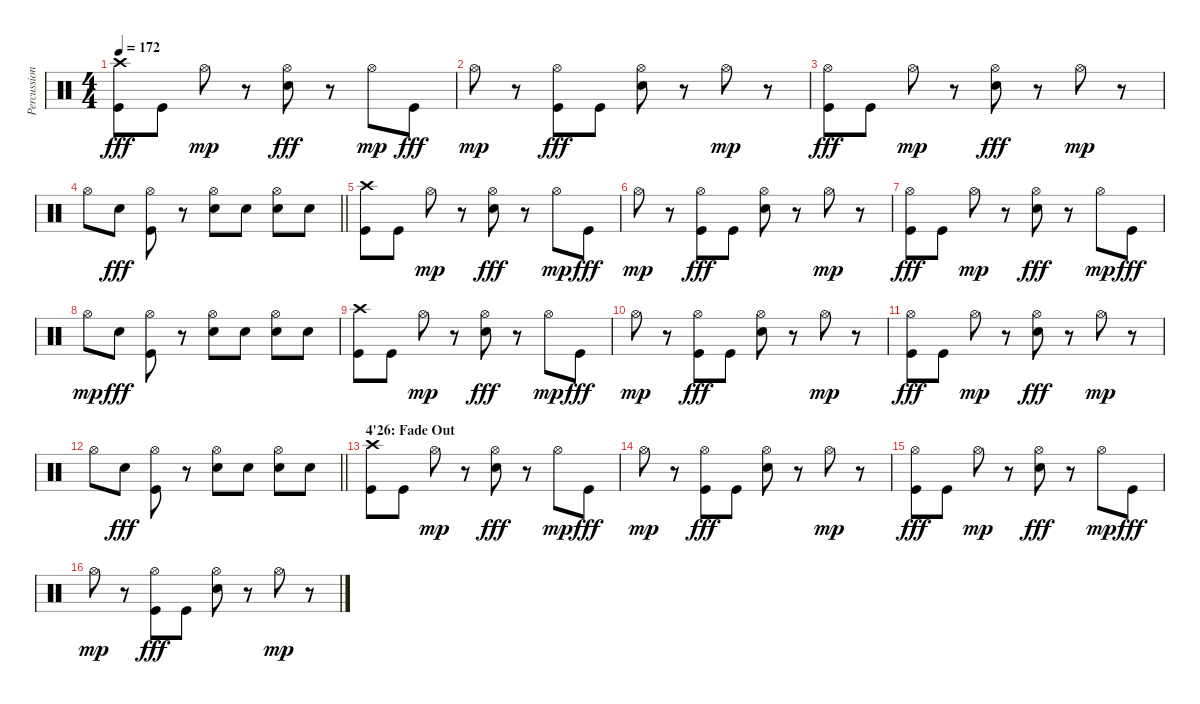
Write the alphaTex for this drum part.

\track ("Percussions" "Percussion") {instrument percussion}
\staff {score}
\articulation defaults
\ts (4 4)
\tempo 172
\clef neutral
\ks c
("Crash high (hit)" "Kick (hit)").8{dy fff} "Kick (hit)".8 "Hi-Hat (open)".8{dy mp} r.8 ("Hi-Hat (open)" "Snare (hit) 2").8{dy fff} r.8 "Hi-Hat (open)".8{dy mp} "Kick (hit)".8{dy fff} |
"Hi-Hat (open)".8{dy mp} r.8 ("Hi-Hat (open)" "Kick (hit)").8{dy fff} "Kick (hit)".8 ("Hi-Hat (open)" "Snare (hit) 2").8 r.8 "Hi-Hat (open)".8{dy mp} r.8 |
("Hi-Hat (open)" "Kick (hit)").8{dy fff} "Kick (hit)".8 "Hi-Hat (open)".8{dy mp} r.8 ("Hi-Hat (open)" "Snare (hit) 2").8{dy fff} r.8 "Hi-Hat (open)".8{dy mp} r.8 |
\barLineRight lightlight "Hi-Hat (open)".8 "Snare (hit) 2".8{dy fff}
("Hi-Hat (open)" "Kick (hit)").8 r.8 ("Hi-Hat (open)" "Snare (hit) 2").8 "Snare (hit) 2".8 ("Hi-Hat (open)" "Snare (hit) 2").8 "Snare (hit) 2".8 |
("Crash high (hit)" "Kick (hit)").8 "Kick (hit)".8 "Hi-Hat (open)".8{dy mp} r.8 ("Hi-Hat (open)" "Snare (hit) 2").8{dy fff} r.8 "Hi-Hat (open)".8{dy mp} "Kick (hit)".8{dy fff} |
"Hi-Hat (open)".8{dy mp} r.8 ("Hi-Hat (open)" "Kick (hit)").8{dy fff} "Kick (hit)".8 ("Hi-Hat (open)" "Snare (hit) 2").8 r.8 "Hi-Hat (open)".8{dy mp} r.8 |
("Hi-Hat (open)" "Kick (hit)").8{dy fff} "Kick (hit)".8 "Hi-Hat (open)".8{dy mp} r.8 ("Hi-Hat (open)" "Snare (hit) 2").8{dy fff} r.8 "Hi-Hat (open)".8{dy mp} "Kick (hit)".8{dy fff} |
"Hi-Hat (open)".8{dy mp} "Snare (hit) 2".8{dy fff} ("Hi-Hat (open)" "Kick (hit)").8 r.8 ("Hi-Hat (open)" "Snare (hit) 2").8 "Snare (hit) 2".8 ("Hi-Hat (open)" "Snare (hit) 2").8 "Snare (hit) 2".8 |
("Crash high (hit)" "Kick (hit)").8 "Kick (hit)".8 "Hi-Hat (open)".8{dy mp} r.8 ("Hi-Hat (open)" "Snare (hit) 2").8{dy fff} r.8 "Hi-Hat (open)".8{dy mp} "Kick (hit)".8{dy fff} |
"Hi-Hat (open)".8{dy mp} r.8 ("Hi-Hat (open)" "Kick (hit)").8{dy fff} "Kick (hit)".8 ("Hi-Hat (open)" "Snare (hit) 2").8 r.8 "Hi-Hat (open)".8{dy mp} r.8 |
("Hi-Hat (open)" "Kick (hit)").8{dy fff} "Kick (hit)".8 "Hi-Hat (open)".8{dy mp} r.8 ("Hi-Hat (open)" "Snare (hit) 2").8{dy fff} r.8 "Hi-Hat (open)".8{dy mp} r.8 |
\barLineRight lightlight "Hi-Hat (open)".8 "Snare (hit) 2".8{dy fff}
("Hi-Hat (open)" "Kick (hit)").8 r.8 ("Hi-Hat (open)" "Snare (hit) 2").8 "Snare (hit) 2".8 ("Hi-Hat (open)" "Snare (hit) 2").8 "Snare (hit) 2".8 |
\section ("" "4'26: Fade Out")
("Crash high (hit)" "Kick (hit)").8{volume 8} "Kick (hit)".8 "Hi-Hat (open)".8{dy mp} r.8 ("Hi-Hat (open)" "Snare (hit) 2").8{dy fff} r.8 "Hi-Hat (open)".8{dy mp} "Kick (hit)".8{dy fff} |
"Hi-Hat (open)".8{dy mp} r.8 ("Hi-Hat (open)" "Kick (hit)").8{dy fff} "Kick (hit)".8 ("Hi-Hat (open)" "Snare (hit) 2").8 r.8 "Hi-Hat (open)".8{dy mp} r.8 |
("Hi-Hat (open)" "Kick (hit)").8{dy fff} "Kick (hit)".8 "Hi-Hat (open)".8{dy mp} r.8 ("Hi-Hat (open)" "Snare (hit) 2").8{dy fff} r.8 "Hi-Hat (open)".8{dy mp} "Kick (hit)".8{dy fff} |
"Hi-Hat (open)".8{dy mp} r.8 ("Hi-Hat (open)" "Kick (hit)").8{dy fff} "Kick (hit)".8 ("Hi-Hat (open)" "Snare (hit) 2").8 r.8 "Hi-Hat (open)".8{dy mp} r.8
